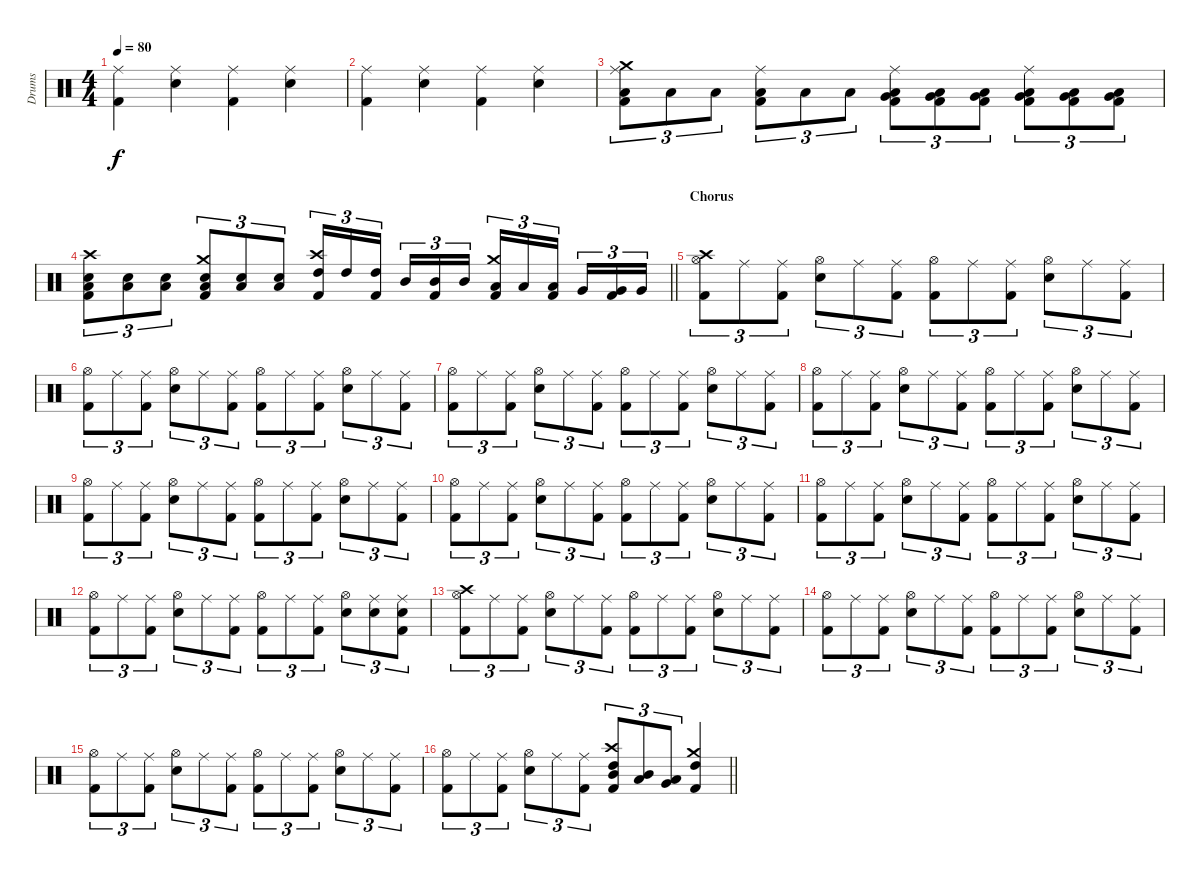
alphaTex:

\track ("Drums" "Drums") {instrument percussion}
\staff {score}
\articulation defaults
\ts (4 4)
\tempo 80
\clef neutral
\ks c
("Ride (middle)" "Kick (hit) 2").4{dy f} ("Ride (middle)" "Snare (hit) 2").4 ("Ride (middle)" "Kick (hit) 2").4 ("Ride (middle)" "Snare (hit) 2").4 |
("Ride (middle)" "Kick (hit) 2").4 ("Ride (middle)" "Snare (hit) 2").4 ("Ride (middle)" "Kick (hit) 2").4 ("Ride (middle)" "Snare (hit) 2").4 |
("Crash medium (hit)" "Ride (middle)" "Low Floor Tom (hit)" "Kick (hit) 2").8{tu (3 2)} "Low Floor Tom (hit)".8{tu (3 2)} "Low Floor Tom (hit)".8{tu (3 2)} ("Ride (middle)" "Low Floor Tom (hit)" "Kick (hit) 2").8{tu (3 2)} "Low Floor Tom (hit)".8{tu (3 2)} "Low Floor Tom (hit)".8{tu (3 2)} ("Ride (middle)" "Very Low Tom (hit)" "Low Floor Tom (hit)" "Kick (hit) 2").8{tu (3 2)} ("Very Low Tom (hit)" "Low Floor Tom (hit)" "Kick (hit) 2").8{tu (3 2)} ("Very Low Tom (hit)" "Low Floor Tom (hit)" "Kick (hit) 2").8{tu (3 2)} ("Ride (middle)" "Very Low Tom (hit)" "Low Floor Tom (hit)" "Kick (hit) 2").8{tu (3 2)} ("Very Low Tom (hit)" "Low Floor Tom (hit)" "Kick (hit) 2").8{tu (3 2)} ("Very Low Tom (hit)" "Low Floor Tom (hit)" "Kick (hit) 2").8{tu (3 2)} |
\barLineRight lightlight
("Crash high (hit)" "Low Floor Tom (hit)" "Snare (hit) 2" "Kick (hit) 2").8{tu (3 2)} ("Low Floor Tom (hit)" "Snare (hit) 2").8{tu (3 2)} ("Low Floor Tom (hit)" "Snare (hit) 2").8{tu (3 2)} ("Crash medium (hit)" "Low Floor Tom (hit)" "Snare (hit) 2" "Kick (hit) 2").8{tu (3 2)} ("Low Floor Tom (hit)" "Snare (hit) 2").8{tu (3 2)} ("Low Floor Tom (hit)" "Snare (hit) 2").8{tu (3 2)} ("Crash high (hit)" "High Tom (hit)" "Kick (hit) 2").16{tu (3 2)} "High Tom (hit)".16{tu (3 2)} ("High Tom (hit)" "Kick (hit) 2").16{tu (3 2) beam splitsecondary} "Mid Tom (hit)".16{tu (3 2)} ("Mid Tom (hit)" "Kick (hit) 2").16{tu (3 2)} "Mid Tom (hit)".16{tu (3 2)} ("Crash medium (hit)" "Low Tom (hit)" "Kick (hit) 2").16{tu (3 2)} "Low Tom (hit)".16{tu (3 2)} ("Low Tom (hit)" "Kick (hit) 2").16{tu (3 2) beam splitsecondary} "Very Low Tom (hit)".16{tu (3 2)} ("Very Low Tom (hit)" "Kick (hit) 2").16{tu (3 2)} "Very Low Tom (hit)".16{tu (3 2)} |
\section ("" "Chorus")
("Crash high (hit)" "Hi-Hat (open)" "Kick (hit) 2").8{tu (3 2)} "Ride (middle)".8{tu (3 2)} ("Ride (middle)" "Kick (hit) 2").8{tu (3 2)} ("Hi-Hat (open)" "Snare (hit) 2").8{tu (3 2)} "Ride (middle)".8{tu (3 2)} ("Ride (middle)" "Kick (hit) 2").8{tu (3 2)} ("Hi-Hat (open)" "Kick (hit) 2").8{tu (3 2)} "Ride (middle)".8{tu (3 2)} ("Ride (middle)" "Kick (hit) 2").8{tu (3 2)} ("Hi-Hat (open)" "Snare (hit) 2").8{tu (3 2)} "Ride (middle)".8{tu (3 2)} ("Ride (middle)" "Kick (hit) 2").8{tu (3 2)} |
("Hi-Hat (open)" "Kick (hit) 2").8{tu (3 2)} "Ride (middle)".8{tu (3 2)} ("Ride (middle)" "Kick (hit) 2").8{tu (3 2)} ("Hi-Hat (open)" "Snare (hit) 2").8{tu (3 2)} "Ride (middle)".8{tu (3 2)} ("Ride (middle)" "Kick (hit) 2").8{tu (3 2)} ("Hi-Hat (open)" "Kick (hit) 2").8{tu (3 2)} "Ride (middle)".8{tu (3 2)} ("Ride (middle)" "Kick (hit) 2").8{tu (3 2)} ("Hi-Hat (open)" "Snare (hit) 2").8{tu (3 2)} "Ride (middle)".8{tu (3 2)} ("Ride (middle)" "Kick (hit) 2").8{tu (3 2)} |
("Hi-Hat (open)" "Kick (hit) 2").8{tu (3 2)} "Ride (middle)".8{tu (3 2)} ("Ride (middle)" "Kick (hit) 2").8{tu (3 2)} ("Hi-Hat (open)" "Snare (hit) 2").8{tu (3 2)} "Ride (middle)".8{tu (3 2)} ("Ride (middle)" "Kick (hit) 2").8{tu (3 2)} ("Hi-Hat (open)" "Kick (hit) 2").8{tu (3 2)} "Ride (middle)".8{tu (3 2)} ("Ride (middle)" "Kick (hit) 2").8{tu (3 2)} ("Hi-Hat (open)" "Snare (hit) 2").8{tu (3 2)} "Ride (middle)".8{tu (3 2)} ("Ride (middle)" "Kick (hit) 2").8{tu (3 2)} |
("Hi-Hat (open)" "Kick (hit) 2").8{tu (3 2)} "Ride (middle)".8{tu (3 2)} ("Ride (middle)" "Kick (hit) 2").8{tu (3 2)} ("Hi-Hat (open)" "Snare (hit) 2").8{tu (3 2)} "Ride (middle)".8{tu (3 2)} ("Ride (middle)" "Kick (hit) 2").8{tu (3 2)} ("Hi-Hat (open)" "Kick (hit) 2").8{tu (3 2)} "Ride (middle)".8{tu (3 2)} ("Ride (middle)" "Kick (hit) 2").8{tu (3 2)} ("Hi-Hat (open)" "Snare (hit) 2").8{tu (3 2)} "Ride (middle)".8{tu (3 2)} ("Ride (middle)" "Kick (hit) 2").8{tu (3 2)} |
("Hi-Hat (open)" "Kick (hit) 2").8{tu (3 2)} "Ride (middle)".8{tu (3 2)} ("Ride (middle)" "Kick (hit) 2").8{tu (3 2)} ("Hi-Hat (open)" "Snare (hit) 2").8{tu (3 2)} "Ride (middle)".8{tu (3 2)} ("Ride (middle)" "Kick (hit) 2").8{tu (3 2)} ("Hi-Hat (open)" "Kick (hit) 2").8{tu (3 2)} "Ride (middle)".8{tu (3 2)} ("Ride (middle)" "Kick (hit) 2").8{tu (3 2)} ("Hi-Hat (open)" "Snare (hit) 2").8{tu (3 2)} "Ride (middle)".8{tu (3 2)} ("Ride (middle)" "Kick (hit) 2").8{tu (3 2)} |
("Hi-Hat (open)" "Kick (hit) 2").8{tu (3 2)} "Ride (middle)".8{tu (3 2)} ("Ride (middle)" "Kick (hit) 2").8{tu (3 2)} ("Hi-Hat (open)" "Snare (hit) 2").8{tu (3 2)} "Ride (middle)".8{tu (3 2)} ("Ride (middle)" "Kick (hit) 2").8{tu (3 2)} ("Hi-Hat (open)" "Kick (hit) 2").8{tu (3 2)} "Ride (middle)".8{tu (3 2)} ("Ride (middle)" "Kick (hit) 2").8{tu (3 2)} ("Hi-Hat (open)" "Snare (hit) 2").8{tu (3 2)} "Ride (middle)".8{tu (3 2)} ("Ride (middle)" "Kick (hit) 2").8{tu (3 2)} |
("Hi-Hat (open)" "Kick (hit) 2").8{tu (3 2)} "Ride (middle)".8{tu (3 2)} ("Ride (middle)" "Kick (hit) 2").8{tu (3 2)} ("Hi-Hat (open)" "Snare (hit) 2").8{tu (3 2)} "Ride (middle)".8{tu (3 2)} ("Ride (middle)" "Kick (hit) 2").8{tu (3 2)} ("Hi-Hat (open)" "Kick (hit) 2").8{tu (3 2)} "Ride (middle)".8{tu (3 2)} ("Ride (middle)" "Kick (hit) 2").8{tu (3 2)} ("Hi-Hat (open)" "Snare (hit) 2").8{tu (3 2)} "Ride (middle)".8{tu (3 2)} ("Ride (middle)" "Kick (hit) 2").8{tu (3 2)} |
("Hi-Hat (open)" "Kick (hit) 2").8{tu (3 2)} "Ride (middle)".8{tu (3 2)} ("Ride (middle)" "Kick (hit) 2").8{tu (3 2)} ("Hi-Hat (open)" "Snare (hit) 2").8{tu (3 2)} "Ride (middle)".8{tu (3 2)} ("Ride (middle)" "Kick (hit) 2").8{tu (3 2)} ("Hi-Hat (open)" "Kick (hit) 2").8{tu (3 2)} "Ride (middle)".8{tu (3 2)} ("Ride (middle)" "Kick (hit) 2").8{tu (3 2)} ("Hi-Hat (open)" "Snare (hit) 2").8{tu (3 2)} ("Ride (middle)" "Snare (hit) 2").8{tu (3 2)} ("Ride (middle)" "Snare (hit) 2" "Kick (hit) 2").8{tu (3 2)} |
("Crash high (hit)" "Hi-Hat (open)" "Kick (hit) 2").8{tu (3 2)} "Ride (middle)".8{tu (3 2)} ("Ride (middle)" "Kick (hit) 2").8{tu (3 2)} ("Hi-Hat (open)" "Snare (hit) 2").8{tu (3 2)} "Ride (middle)".8{tu (3 2)} ("Ride (middle)" "Kick (hit) 2").8{tu (3 2)} ("Hi-Hat (open)" "Kick (hit) 2").8{tu (3 2)} "Ride (middle)".8{tu (3 2)} ("Ride (middle)" "Kick (hit) 2").8{tu (3 2)} ("Hi-Hat (open)" "Snare (hit) 2").8{tu (3 2)} "Ride (middle)".8{tu (3 2)} ("Ride (middle)" "Kick (hit) 2").8{tu (3 2)} |
("Hi-Hat (open)" "Kick (hit) 2").8{tu (3 2)} "Ride (middle)".8{tu (3 2)} ("Ride (middle)" "Kick (hit) 2").8{tu (3 2)} ("Hi-Hat (open)" "Snare (hit) 2").8{tu (3 2)} "Ride (middle)".8{tu (3 2)} ("Ride (middle)" "Kick (hit) 2").8{tu (3 2)} ("Hi-Hat (open)" "Kick (hit) 2").8{tu (3 2)} "Ride (middle)".8{tu (3 2)} ("Ride (middle)" "Kick (hit) 2").8{tu (3 2)} ("Hi-Hat (open)" "Snare (hit) 2").8{tu (3 2)} "Ride (middle)".8{tu (3 2)} ("Ride (middle)" "Kick (hit) 2").8{tu (3 2)} |
("Hi-Hat (open)" "Kick (hit) 2").8{tu (3 2)} "Ride (middle)".8{tu (3 2)} ("Ride (middle)" "Kick (hit) 2").8{tu (3 2)} ("Hi-Hat (open)" "Snare (hit) 2").8{tu (3 2)} "Ride (middle)".8{tu (3 2)} ("Ride (middle)" "Kick (hit) 2").8{tu (3 2)} ("Hi-Hat (open)" "Kick (hit) 2").8{tu (3 2)} "Ride (middle)".8{tu (3 2)} ("Ride (middle)" "Kick (hit) 2").8{tu (3 2)} ("Hi-Hat (open)" "Snare (hit) 2").8{tu (3 2)} "Ride (middle)".8{tu (3 2)} ("Ride (middle)" "Kick (hit) 2").8{tu (3 2)} |
\barLineRight lightlight
("Hi-Hat (open)" "Kick (hit) 2").8{tu (3 2)} "Ride (middle)".8{tu (3 2)} ("Ride (middle)" "Kick (hit) 2").8{tu (3 2)} ("Hi-Hat (open)" "Snare (hit) 2").8{tu (3 2)} "Ride (middle)".8{tu (3 2)} ("Ride (middle)" "Kick (hit) 2").8{tu (3 2)} ("Crash high (hit)" "High Tom (hit)" "Mid Tom (hit)" "Kick (hit) 2").8{tu (3 2)} ("Mid Tom (hit)" "Low Tom (hit)").8{tu (3 2)} ("Low Tom (hit)" "Very Low Tom (hit)").8{tu (3 2)} ("Crash medium (hit)" "High Tom (hit)" "Kick (hit) 2").4
